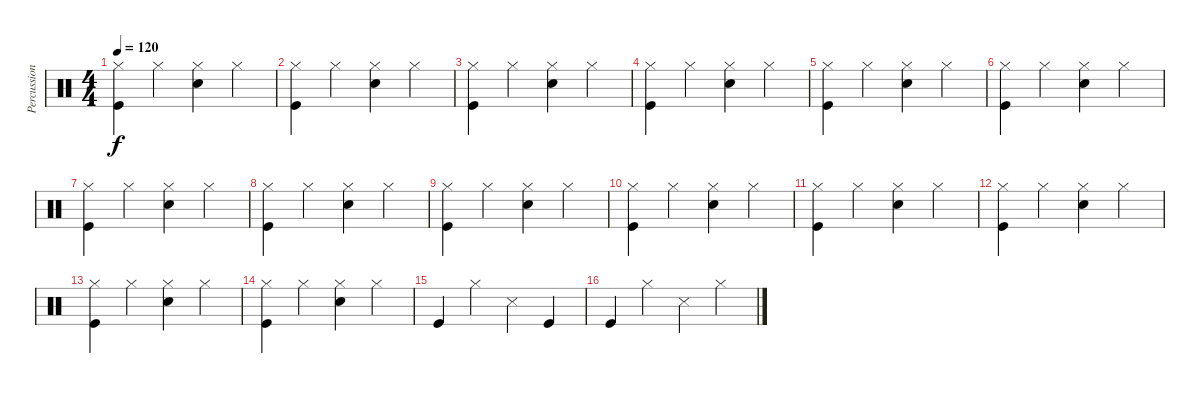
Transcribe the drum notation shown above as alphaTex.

\track ("Percussion" "Percussion") {instrument percussion}
\staff {score}
\articulation defaults
\ts (4 4)
\tempo 120
\clef neutral
\ks c
("Kick (hit)" "Hi-Hat (closed)").4{dy f} "Hi-Hat (closed)".4 ("Snare (hit) 2" "Hi-Hat (closed)").4 "Hi-Hat (closed)".4 |
("Kick (hit)" "Hi-Hat (closed)").4 "Hi-Hat (closed)".4 ("Snare (hit) 2" "Hi-Hat (closed)").4 "Hi-Hat (closed)".4 |
("Kick (hit)" "Hi-Hat (closed)").4 "Hi-Hat (closed)".4 ("Snare (hit) 2" "Hi-Hat (closed)").4 "Hi-Hat (closed)".4 |
("Kick (hit)" "Hi-Hat (closed)").4 "Hi-Hat (closed)".4 ("Snare (hit) 2" "Hi-Hat (closed)").4 "Hi-Hat (closed)".4 |
("Kick (hit)" "Hi-Hat (closed)").4 "Hi-Hat (closed)".4 ("Snare (hit) 2" "Hi-Hat (closed)").4 "Hi-Hat (closed)".4 |
("Kick (hit)" "Hi-Hat (closed)").4 "Hi-Hat (closed)".4 ("Snare (hit) 2" "Hi-Hat (closed)").4 "Hi-Hat (closed)".4 |
("Kick (hit)" "Hi-Hat (closed)").4 "Hi-Hat (closed)".4 ("Snare (hit) 2" "Hi-Hat (closed)").4 "Hi-Hat (closed)".4 |
("Kick (hit)" "Hi-Hat (closed)").4 "Hi-Hat (closed)".4 ("Snare (hit) 2" "Hi-Hat (closed)").4 "Hi-Hat (closed)".4 |
("Kick (hit)" "Hi-Hat (closed)").4 "Hi-Hat (closed)".4 ("Snare (hit) 2" "Hi-Hat (closed)").4 "Hi-Hat (closed)".4 |
("Kick (hit)" "Hi-Hat (closed)").4 "Hi-Hat (closed)".4 ("Snare (hit) 2" "Hi-Hat (closed)").4 "Hi-Hat (closed)".4 |
("Kick (hit)" "Hi-Hat (closed)").4 "Hi-Hat (closed)".4 ("Snare (hit) 2" "Hi-Hat (closed)").4 "Hi-Hat (closed)".4 |
("Kick (hit)" "Hi-Hat (closed)").4 "Hi-Hat (closed)".4 ("Snare (hit) 2" "Hi-Hat (closed)").4 "Hi-Hat (closed)".4 |
("Kick (hit)" "Hi-Hat (closed)").4 "Hi-Hat (closed)".4 ("Snare (hit) 2" "Hi-Hat (closed)").4 "Hi-Hat (closed)".4 |
("Kick (hit)" "Hi-Hat (closed)").4 "Hi-Hat (closed)".4 ("Snare (hit) 2" "Hi-Hat (closed)").4 "Hi-Hat (closed)".4 |
"Kick (hit)".4 "Hi-Hat (closed)".4 "Snare (side stick) 3".4 "Kick (hit)".4 |
"Kick (hit)".4 "Hi-Hat (closed)".4 "Snare (side stick) 3".4 "Hi-Hat (closed)".4
